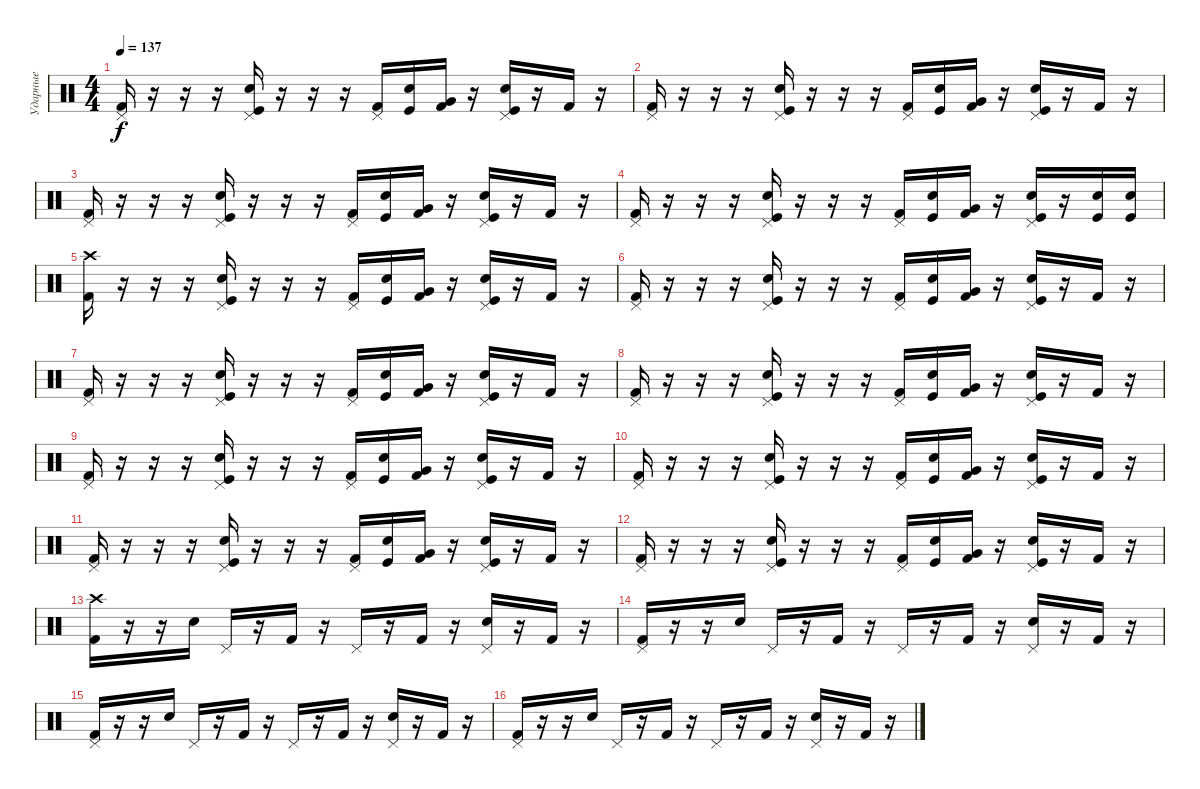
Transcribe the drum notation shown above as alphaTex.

\track ("Ударные" "Ударные") {instrument percussion}
\staff {score}
\articulation defaults
\ts (4 4)
\tempo 137
\clef neutral
\ks c
("Pedal Hi-Hat (hit)" "Kick (hit) 2").16{dy f} r.16 r.16 r.16 ("Pedal Hi-Hat (hit)" "Electric Snare (hit)" "Kick (hit)").16 r.16 r.16 r.16 ("Pedal Hi-Hat (hit)" "Kick (hit) 2").16 ("Electric Snare (hit)" "Kick (hit)").16 ("Very Low Tom (hit)" "Kick (hit) 2").16 r.16 ("Pedal Hi-Hat (hit)" "Electric Snare (hit)" "Kick (hit)").16 r.16 "Kick (hit) 2".16 r.16 |
("Pedal Hi-Hat (hit)" "Kick (hit) 2").16 r.16 r.16 r.16 ("Pedal Hi-Hat (hit)" "Electric Snare (hit)" "Kick (hit)").16 r.16 r.16 r.16 ("Pedal Hi-Hat (hit)" "Kick (hit) 2").16 ("Electric Snare (hit)" "Kick (hit)").16 ("Very Low Tom (hit)" "Kick (hit) 2").16 r.16 ("Pedal Hi-Hat (hit)" "Electric Snare (hit)" "Kick (hit)").16 r.16 "Kick (hit) 2".16 r.16 |
("Pedal Hi-Hat (hit)" "Kick (hit) 2").16 r.16 r.16 r.16 ("Pedal Hi-Hat (hit)" "Electric Snare (hit)" "Kick (hit)").16 r.16 r.16 r.16 ("Pedal Hi-Hat (hit)" "Kick (hit) 2").16 ("Electric Snare (hit)" "Kick (hit)").16 ("Very Low Tom (hit)" "Kick (hit) 2").16 r.16 ("Pedal Hi-Hat (hit)" "Electric Snare (hit)" "Kick (hit)").16 r.16 "Kick (hit) 2".16 r.16 |
("Pedal Hi-Hat (hit)" "Kick (hit) 2").16 r.16 r.16 r.16 ("Pedal Hi-Hat (hit)" "Electric Snare (hit)" "Kick (hit)").16 r.16 r.16 r.16 ("Pedal Hi-Hat (hit)" "Kick (hit) 2").16 ("Electric Snare (hit)" "Kick (hit)").16 ("Very Low Tom (hit)" "Kick (hit) 2").16 r.16 ("Pedal Hi-Hat (hit)" "Electric Snare (hit)" "Kick (hit)").16 r.16 ("Electric Snare (hit)" "Kick (hit)").16 ("Electric Snare (hit)" "Kick (hit)").16 |
("Crash high (hit)" "Kick (hit) 2").16 r.16 r.16 r.16 ("Pedal Hi-Hat (hit)" "Electric Snare (hit)" "Kick (hit)").16 r.16 r.16 r.16 ("Pedal Hi-Hat (hit)" "Kick (hit) 2").16 ("Electric Snare (hit)" "Kick (hit)").16 ("Very Low Tom (hit)" "Kick (hit) 2").16 r.16 ("Pedal Hi-Hat (hit)" "Electric Snare (hit)" "Kick (hit)").16 r.16 "Kick (hit) 2".16 r.16 |
("Pedal Hi-Hat (hit)" "Kick (hit) 2").16 r.16 r.16 r.16 ("Pedal Hi-Hat (hit)" "Electric Snare (hit)" "Kick (hit)").16 r.16 r.16 r.16 ("Pedal Hi-Hat (hit)" "Kick (hit) 2").16 ("Electric Snare (hit)" "Kick (hit)").16 ("Very Low Tom (hit)" "Kick (hit) 2").16 r.16 ("Pedal Hi-Hat (hit)" "Electric Snare (hit)" "Kick (hit)").16 r.16 "Kick (hit) 2".16 r.16 |
("Pedal Hi-Hat (hit)" "Kick (hit) 2").16 r.16 r.16 r.16 ("Pedal Hi-Hat (hit)" "Electric Snare (hit)" "Kick (hit)").16 r.16 r.16 r.16 ("Pedal Hi-Hat (hit)" "Kick (hit) 2").16 ("Electric Snare (hit)" "Kick (hit)").16 ("Very Low Tom (hit)" "Kick (hit) 2").16 r.16 ("Pedal Hi-Hat (hit)" "Electric Snare (hit)" "Kick (hit)").16 r.16 "Kick (hit) 2".16 r.16 |
("Pedal Hi-Hat (hit)" "Kick (hit) 2").16 r.16 r.16 r.16 ("Pedal Hi-Hat (hit)" "Electric Snare (hit)" "Kick (hit)").16 r.16 r.16 r.16 ("Pedal Hi-Hat (hit)" "Kick (hit) 2").16 ("Electric Snare (hit)" "Kick (hit)").16 ("Very Low Tom (hit)" "Kick (hit) 2").16 r.16 ("Pedal Hi-Hat (hit)" "Electric Snare (hit)" "Kick (hit)").16 r.16 "Kick (hit) 2".16 r.16 |
("Pedal Hi-Hat (hit)" "Kick (hit) 2").16 r.16 r.16 r.16 ("Pedal Hi-Hat (hit)" "Electric Snare (hit)" "Kick (hit)").16 r.16 r.16 r.16 ("Pedal Hi-Hat (hit)" "Kick (hit) 2").16 ("Electric Snare (hit)" "Kick (hit)").16 ("Very Low Tom (hit)" "Kick (hit) 2").16 r.16 ("Pedal Hi-Hat (hit)" "Electric Snare (hit)" "Kick (hit)").16 r.16 "Kick (hit) 2".16 r.16 |
("Pedal Hi-Hat (hit)" "Kick (hit) 2").16 r.16 r.16 r.16 ("Pedal Hi-Hat (hit)" "Electric Snare (hit)" "Kick (hit)").16 r.16 r.16 r.16 ("Pedal Hi-Hat (hit)" "Kick (hit) 2").16 ("Electric Snare (hit)" "Kick (hit)").16 ("Very Low Tom (hit)" "Kick (hit) 2").16 r.16 ("Pedal Hi-Hat (hit)" "Electric Snare (hit)" "Kick (hit)").16 r.16 "Kick (hit) 2".16 r.16 |
("Pedal Hi-Hat (hit)" "Kick (hit) 2").16 r.16 r.16 r.16 ("Pedal Hi-Hat (hit)" "Electric Snare (hit)" "Kick (hit)").16 r.16 r.16 r.16 ("Pedal Hi-Hat (hit)" "Kick (hit) 2").16 ("Electric Snare (hit)" "Kick (hit)").16 ("Very Low Tom (hit)" "Kick (hit) 2").16 r.16 ("Pedal Hi-Hat (hit)" "Electric Snare (hit)" "Kick (hit)").16 r.16 "Kick (hit) 2".16 r.16 |
("Pedal Hi-Hat (hit)" "Kick (hit) 2").16 r.16 r.16 r.16 ("Pedal Hi-Hat (hit)" "Electric Snare (hit)" "Kick (hit)").16 r.16 r.16 r.16 ("Pedal Hi-Hat (hit)" "Kick (hit) 2").16 ("Electric Snare (hit)" "Kick (hit)").16 ("Very Low Tom (hit)" "Kick (hit) 2").16 r.16 ("Pedal Hi-Hat (hit)" "Electric Snare (hit)" "Kick (hit)").16 r.16 "Kick (hit) 2".16 r.16 |
("Crash high (hit)" "Kick (hit) 2").16 r.16 r.16 "Electric Snare (hit)".16 "Pedal Hi-Hat (hit)".16 r.16 "Kick (hit) 2".16 r.16 "Pedal Hi-Hat (hit)".16 r.16 "Kick (hit) 2".16 r.16 ("Pedal Hi-Hat (hit)" "Electric Snare (hit)").16 r.16 "Kick (hit) 2".16 r.16 |
("Pedal Hi-Hat (hit)" "Kick (hit) 2").16 r.16 r.16 "Electric Snare (hit)".16 "Pedal Hi-Hat (hit)".16 r.16 "Kick (hit) 2".16 r.16 "Pedal Hi-Hat (hit)".16 r.16 "Kick (hit) 2".16 r.16 ("Pedal Hi-Hat (hit)" "Electric Snare (hit)").16 r.16 "Kick (hit) 2".16 r.16 |
("Pedal Hi-Hat (hit)" "Kick (hit) 2").16 r.16 r.16 "Electric Snare (hit)".16 "Pedal Hi-Hat (hit)".16 r.16 "Kick (hit) 2".16 r.16 "Pedal Hi-Hat (hit)".16 r.16 "Kick (hit) 2".16 r.16 ("Pedal Hi-Hat (hit)" "Electric Snare (hit)").16 r.16 "Kick (hit) 2".16 r.16 |
("Pedal Hi-Hat (hit)" "Kick (hit) 2").16 r.16 r.16 "Electric Snare (hit)".16 "Pedal Hi-Hat (hit)".16 r.16 "Kick (hit) 2".16 r.16 "Pedal Hi-Hat (hit)".16 r.16 "Kick (hit) 2".16 r.16 ("Pedal Hi-Hat (hit)" "Electric Snare (hit)").16 r.16 "Kick (hit) 2".16 r.16
